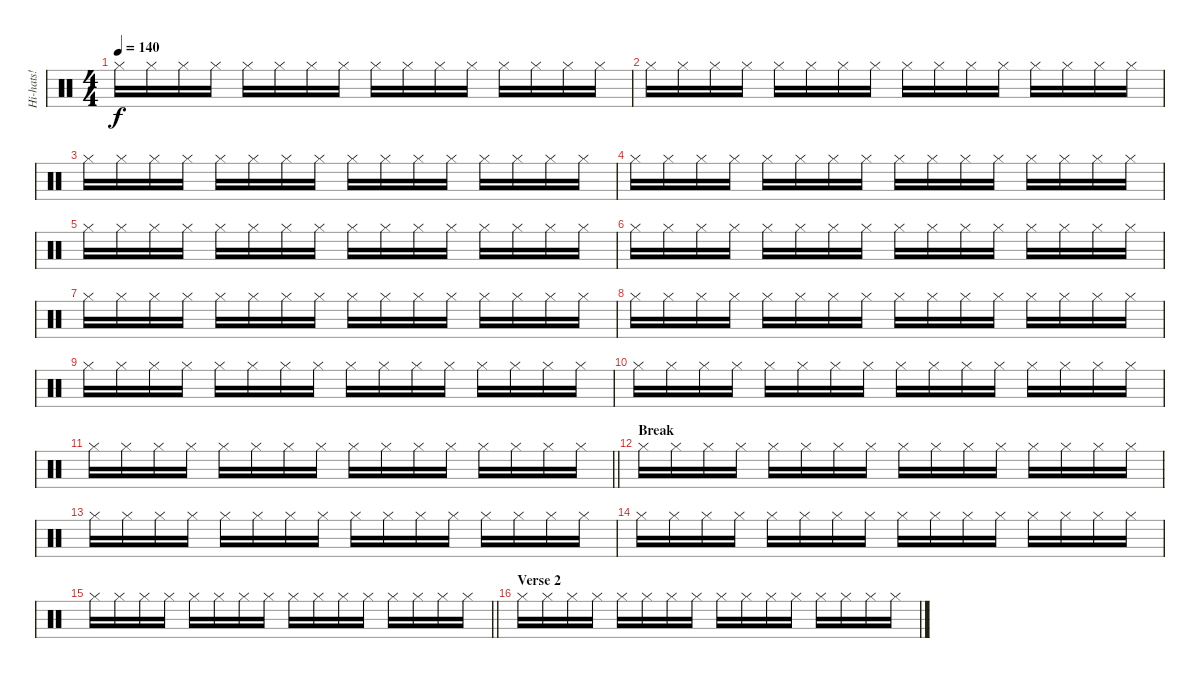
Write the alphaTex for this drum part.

\track ("Hi-hats!" "Hi-hats!") {instrument percussion}
\staff {score}
\articulation defaults
\ts (4 4)
\tempo 140
\clef neutral
\ks c "Hi-Hat (closed)".16{dy f} "Hi-Hat (closed)".16 "Hi-Hat (closed)".16 "Hi-Hat (closed)".16 "Hi-Hat (closed)".16 "Hi-Hat (closed)".16 "Hi-Hat (closed)".16 "Hi-Hat (closed)".16 "Hi-Hat (closed)".16 "Hi-Hat (closed)".16 "Hi-Hat (closed)".16 "Hi-Hat (closed)".16 "Hi-Hat (closed)".16 "Hi-Hat (closed)".16 "Hi-Hat (closed)".16 "Hi-Hat (closed)".16
|
"Hi-Hat (closed)".16 "Hi-Hat (closed)".16 "Hi-Hat (closed)".16 "Hi-Hat (closed)".16 "Hi-Hat (closed)".16 "Hi-Hat (closed)".16 "Hi-Hat (closed)".16 "Hi-Hat (closed)".16 "Hi-Hat (closed)".16 "Hi-Hat (closed)".16 "Hi-Hat (closed)".16 "Hi-Hat (closed)".16 "Hi-Hat (closed)".16 "Hi-Hat (closed)".16 "Hi-Hat (closed)".16 "Hi-Hat (closed)".16 |
"Hi-Hat (closed)".16 "Hi-Hat (closed)".16 "Hi-Hat (closed)".16 "Hi-Hat (closed)".16 "Hi-Hat (closed)".16 "Hi-Hat (closed)".16 "Hi-Hat (closed)".16 "Hi-Hat (closed)".16 "Hi-Hat (closed)".16 "Hi-Hat (closed)".16 "Hi-Hat (closed)".16 "Hi-Hat (closed)".16 "Hi-Hat (closed)".16 "Hi-Hat (closed)".16 "Hi-Hat (closed)".16 "Hi-Hat (closed)".16 |
"Hi-Hat (closed)".16 "Hi-Hat (closed)".16 "Hi-Hat (closed)".16 "Hi-Hat (closed)".16 "Hi-Hat (closed)".16 "Hi-Hat (closed)".16 "Hi-Hat (closed)".16 "Hi-Hat (closed)".16 "Hi-Hat (closed)".16 "Hi-Hat (closed)".16 "Hi-Hat (closed)".16 "Hi-Hat (closed)".16 "Hi-Hat (closed)".16 "Hi-Hat (closed)".16 "Hi-Hat (closed)".16 "Hi-Hat (closed)".16 |
"Hi-Hat (closed)".16 "Hi-Hat (closed)".16 "Hi-Hat (closed)".16 "Hi-Hat (closed)".16 "Hi-Hat (closed)".16 "Hi-Hat (closed)".16 "Hi-Hat (closed)".16 "Hi-Hat (closed)".16 "Hi-Hat (closed)".16 "Hi-Hat (closed)".16 "Hi-Hat (closed)".16 "Hi-Hat (closed)".16 "Hi-Hat (closed)".16 "Hi-Hat (closed)".16 "Hi-Hat (closed)".16 "Hi-Hat (closed)".16 |
"Hi-Hat (closed)".16 "Hi-Hat (closed)".16 "Hi-Hat (closed)".16 "Hi-Hat (closed)".16 "Hi-Hat (closed)".16 "Hi-Hat (closed)".16 "Hi-Hat (closed)".16 "Hi-Hat (closed)".16 "Hi-Hat (closed)".16 "Hi-Hat (closed)".16 "Hi-Hat (closed)".16 "Hi-Hat (closed)".16 "Hi-Hat (closed)".16 "Hi-Hat (closed)".16 "Hi-Hat (closed)".16 "Hi-Hat (closed)".16 |
"Hi-Hat (closed)".16 "Hi-Hat (closed)".16 "Hi-Hat (closed)".16 "Hi-Hat (closed)".16 "Hi-Hat (closed)".16 "Hi-Hat (closed)".16 "Hi-Hat (closed)".16 "Hi-Hat (closed)".16 "Hi-Hat (closed)".16 "Hi-Hat (closed)".16 "Hi-Hat (closed)".16 "Hi-Hat (closed)".16 "Hi-Hat (closed)".16 "Hi-Hat (closed)".16 "Hi-Hat (closed)".16 "Hi-Hat (closed)".16 |
"Hi-Hat (closed)".16 "Hi-Hat (closed)".16 "Hi-Hat (closed)".16 "Hi-Hat (closed)".16 "Hi-Hat (closed)".16 "Hi-Hat (closed)".16 "Hi-Hat (closed)".16 "Hi-Hat (closed)".16 "Hi-Hat (closed)".16 "Hi-Hat (closed)".16 "Hi-Hat (closed)".16 "Hi-Hat (closed)".16 "Hi-Hat (closed)".16 "Hi-Hat (closed)".16 "Hi-Hat (closed)".16 "Hi-Hat (closed)".16 |
"Hi-Hat (closed)".16 "Hi-Hat (closed)".16 "Hi-Hat (closed)".16 "Hi-Hat (closed)".16 "Hi-Hat (closed)".16 "Hi-Hat (closed)".16 "Hi-Hat (closed)".16 "Hi-Hat (closed)".16 "Hi-Hat (closed)".16 "Hi-Hat (closed)".16 "Hi-Hat (closed)".16 "Hi-Hat (closed)".16 "Hi-Hat (closed)".16 "Hi-Hat (closed)".16 "Hi-Hat (closed)".16 "Hi-Hat (closed)".16 |
"Hi-Hat (closed)".16 "Hi-Hat (closed)".16 "Hi-Hat (closed)".16 "Hi-Hat (closed)".16 "Hi-Hat (closed)".16 "Hi-Hat (closed)".16 "Hi-Hat (closed)".16 "Hi-Hat (closed)".16 "Hi-Hat (closed)".16 "Hi-Hat (closed)".16 "Hi-Hat (closed)".16 "Hi-Hat (closed)".16 "Hi-Hat (closed)".16 "Hi-Hat (closed)".16 "Hi-Hat (closed)".16 "Hi-Hat (closed)".16 |
\barLineRight lightlight "Hi-Hat (closed)".16 "Hi-Hat (closed)".16 "Hi-Hat (closed)".16 "Hi-Hat (closed)".16 "Hi-Hat (closed)".16 "Hi-Hat (closed)".16 "Hi-Hat (closed)".16 "Hi-Hat (closed)".16 "Hi-Hat (closed)".16 "Hi-Hat (closed)".16 "Hi-Hat (closed)".16 "Hi-Hat (closed)".16 "Hi-Hat (closed)".16 "Hi-Hat (closed)".16 "Hi-Hat (closed)".16 "Hi-Hat (closed)".16
|
\section ("" "Break")
"Hi-Hat (closed)".16 "Hi-Hat (closed)".16 "Hi-Hat (closed)".16 "Hi-Hat (closed)".16 "Hi-Hat (closed)".16 "Hi-Hat (closed)".16 "Hi-Hat (closed)".16 "Hi-Hat (closed)".16 "Hi-Hat (closed)".16 "Hi-Hat (closed)".16 "Hi-Hat (closed)".16 "Hi-Hat (closed)".16 "Hi-Hat (closed)".16 "Hi-Hat (closed)".16 "Hi-Hat (closed)".16 "Hi-Hat (closed)".16 |
"Hi-Hat (closed)".16 "Hi-Hat (closed)".16 "Hi-Hat (closed)".16 "Hi-Hat (closed)".16 "Hi-Hat (closed)".16 "Hi-Hat (closed)".16 "Hi-Hat (closed)".16 "Hi-Hat (closed)".16 "Hi-Hat (closed)".16 "Hi-Hat (closed)".16 "Hi-Hat (closed)".16 "Hi-Hat (closed)".16 "Hi-Hat (closed)".16 "Hi-Hat (closed)".16 "Hi-Hat (closed)".16 "Hi-Hat (closed)".16 |
"Hi-Hat (closed)".16 "Hi-Hat (closed)".16 "Hi-Hat (closed)".16 "Hi-Hat (closed)".16 "Hi-Hat (closed)".16 "Hi-Hat (closed)".16 "Hi-Hat (closed)".16 "Hi-Hat (closed)".16 "Hi-Hat (closed)".16 "Hi-Hat (closed)".16 "Hi-Hat (closed)".16 "Hi-Hat (closed)".16 "Hi-Hat (closed)".16 "Hi-Hat (closed)".16 "Hi-Hat (closed)".16 "Hi-Hat (closed)".16 |
\barLineRight lightlight "Hi-Hat (closed)".16 "Hi-Hat (closed)".16 "Hi-Hat (closed)".16 "Hi-Hat (closed)".16 "Hi-Hat (closed)".16 "Hi-Hat (closed)".16 "Hi-Hat (closed)".16 "Hi-Hat (closed)".16 "Hi-Hat (closed)".16 "Hi-Hat (closed)".16 "Hi-Hat (closed)".16 "Hi-Hat (closed)".16 "Hi-Hat (closed)".16 "Hi-Hat (closed)".16 "Hi-Hat (closed)".16 "Hi-Hat (closed)".16
|
\section ("" "Verse 2")
"Hi-Hat (closed)".16 "Hi-Hat (closed)".16 "Hi-Hat (closed)".16 "Hi-Hat (closed)".16 "Hi-Hat (closed)".16 "Hi-Hat (closed)".16 "Hi-Hat (closed)".16 "Hi-Hat (closed)".16 "Hi-Hat (closed)".16 "Hi-Hat (closed)".16 "Hi-Hat (closed)".16 "Hi-Hat (closed)".16 "Hi-Hat (closed)".16 "Hi-Hat (closed)".16 "Hi-Hat (closed)".16 "Hi-Hat (closed)".16
